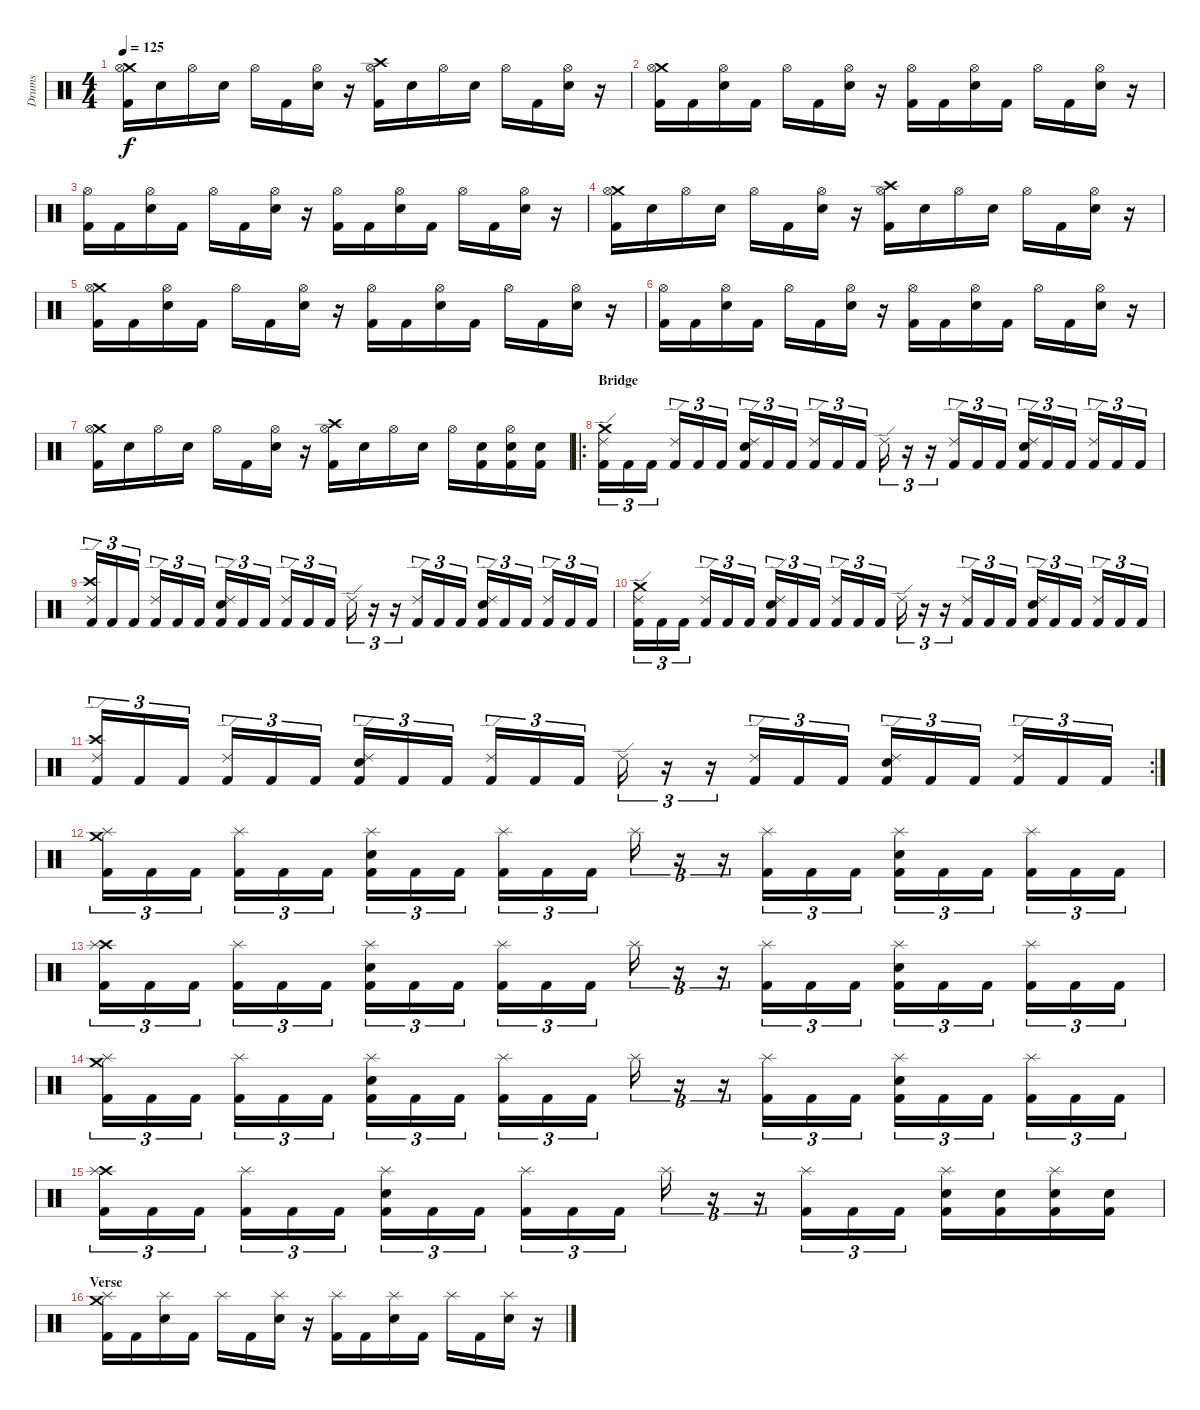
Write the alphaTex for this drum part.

\track ("Drums" "Drums") {instrument percussion}
\staff {score}
\articulation defaults
\ts (4 4)
\tempo 125
\clef neutral
\ks c
("Crash medium (hit)" "Hi-Hat (open)" "Kick (hit) 2").16{dy f} "Electric Snare (hit)".16 "Hi-Hat (open)".16 "Electric Snare (hit)".16 "Hi-Hat (open)".16 "Kick (hit) 2".16 ("Hi-Hat (open)" "Electric Snare (hit)").16 r.16 ("Crash high (hit)" "Hi-Hat (open)" "Kick (hit) 2").16 "Electric Snare (hit)".16 "Hi-Hat (open)".16 "Electric Snare (hit)".16 "Hi-Hat (open)".16 "Kick (hit) 2".16 ("Hi-Hat (open)" "Electric Snare (hit)").16 r.16 |
("Crash medium (hit)" "Hi-Hat (open)" "Kick (hit) 2").16 "Kick (hit) 2".16 ("Hi-Hat (open)" "Electric Snare (hit)").16 "Kick (hit) 2".16 "Hi-Hat (open)".16 "Kick (hit) 2".16 ("Hi-Hat (open)" "Electric Snare (hit)").16 r.16 ("Hi-Hat (open)" "Kick (hit) 2").16 "Kick (hit) 2".16 ("Hi-Hat (open)" "Electric Snare (hit)").16 "Kick (hit) 2".16 "Hi-Hat (open)".16 "Kick (hit) 2".16 ("Hi-Hat (open)" "Electric Snare (hit)").16 r.16 |
("Hi-Hat (open)" "Kick (hit) 2").16 "Kick (hit) 2".16 ("Hi-Hat (open)" "Electric Snare (hit)").16 "Kick (hit) 2".16 "Hi-Hat (open)".16 "Kick (hit) 2".16 ("Hi-Hat (open)" "Electric Snare (hit)").16 r.16 ("Hi-Hat (open)" "Kick (hit) 2").16 "Kick (hit) 2".16 ("Hi-Hat (open)" "Electric Snare (hit)").16 "Kick (hit) 2".16 "Hi-Hat (open)".16 "Kick (hit) 2".16 ("Hi-Hat (open)" "Electric Snare (hit)").16 r.16 |
("Crash medium (hit)" "Hi-Hat (open)" "Kick (hit) 2").16 "Electric Snare (hit)".16 "Hi-Hat (open)".16 "Electric Snare (hit)".16 "Hi-Hat (open)".16 "Kick (hit) 2".16 ("Hi-Hat (open)" "Electric Snare (hit)").16 r.16 ("Crash high (hit)" "Hi-Hat (open)" "Kick (hit) 2").16 "Electric Snare (hit)".16 "Hi-Hat (open)".16 "Electric Snare (hit)".16 "Hi-Hat (open)".16 "Kick (hit) 2".16 ("Hi-Hat (open)" "Electric Snare (hit)").16 r.16 |
("Crash medium (hit)" "Hi-Hat (open)" "Kick (hit) 2").16 "Kick (hit) 2".16 ("Hi-Hat (open)" "Electric Snare (hit)").16 "Kick (hit) 2".16 "Hi-Hat (open)".16 "Kick (hit) 2".16 ("Hi-Hat (open)" "Electric Snare (hit)").16 r.16 ("Hi-Hat (open)" "Kick (hit) 2").16 "Kick (hit) 2".16 ("Hi-Hat (open)" "Electric Snare (hit)").16 "Kick (hit) 2".16 "Hi-Hat (open)".16 "Kick (hit) 2".16 ("Hi-Hat (open)" "Electric Snare (hit)").16 r.16 |
("Hi-Hat (open)" "Kick (hit) 2").16 "Kick (hit) 2".16 ("Hi-Hat (open)" "Electric Snare (hit)").16 "Kick (hit) 2".16 "Hi-Hat (open)".16 "Kick (hit) 2".16 ("Hi-Hat (open)" "Electric Snare (hit)").16 r.16 ("Hi-Hat (open)" "Kick (hit) 2").16 "Kick (hit) 2".16 ("Hi-Hat (open)" "Electric Snare (hit)").16 "Kick (hit) 2".16 "Hi-Hat (open)".16 "Kick (hit) 2".16 ("Hi-Hat (open)" "Electric Snare (hit)").16 r.16 |
("Crash medium (hit)" "Hi-Hat (open)" "Kick (hit) 2").16 "Electric Snare (hit)".16 "Hi-Hat (open)".16 "Electric Snare (hit)".16 "Hi-Hat (open)".16 "Kick (hit) 2".16 ("Hi-Hat (open)" "Electric Snare (hit)").16 r.16 ("Crash high (hit)" "Hi-Hat (open)" "Kick (hit) 2").16 "Electric Snare (hit)".16 "Hi-Hat (open)".16 "Electric Snare (hit)".16 "Hi-Hat (open)".16 ("Electric Snare (hit)" "Kick (hit) 2").16 ("Hi-Hat (open)" "Electric Snare (hit)" "Kick (hit) 2").16 ("Electric Snare (hit)" "Kick (hit) 2").16 |
\ro
\section ("" "Bridge")
("Crash medium (hit)" "Ride (edge) 2" "Kick (hit) 2").16{tu (3 2)} "Kick (hit) 2".16{tu (3 2)} "Kick (hit) 2".16{tu (3 2)} ("Ride (edge) 2" "Kick (hit) 2").16{tu (3 2)} "Kick (hit) 2".16{tu (3 2)} "Kick (hit) 2".16{tu (3 2)} ("Ride (edge) 2" "Electric Snare (hit)" "Kick (hit) 2").16{tu (3 2)} "Kick (hit) 2".16{tu (3 2)} "Kick (hit) 2".16{tu (3 2)} ("Ride (edge) 2" "Kick (hit) 2").16{tu (3 2)} "Kick (hit) 2".16{tu (3 2)} "Kick (hit) 2".16{tu (3 2)} "Ride (edge) 2".16{tu (3 2)} r.16{tu (3 2)} r.16{tu (3 2)} ("Ride (edge) 2" "Kick (hit) 2").16{tu (3 2)} "Kick (hit) 2".16{tu (3 2)} "Kick (hit) 2".16{tu (3 2)} ("Ride (edge) 2" "Electric Snare (hit)" "Kick (hit) 2").16{tu (3 2)} "Kick (hit) 2".16{tu (3 2)} "Kick (hit) 2".16{tu (3 2)} ("Ride (edge) 2" "Kick (hit) 2").16{tu (3 2)} "Kick (hit) 2".16{tu (3 2)} "Kick (hit) 2".16{tu (3 2)} |
("Crash high (hit)" "Ride (edge) 2" "Kick (hit) 2").16{tu (3 2)} "Kick (hit) 2".16{tu (3 2)} "Kick (hit) 2".16{tu (3 2)} ("Ride (edge) 2" "Kick (hit) 2").16{tu (3 2)} "Kick (hit) 2".16{tu (3 2)} "Kick (hit) 2".16{tu (3 2)} ("Ride (edge) 2" "Electric Snare (hit)" "Kick (hit) 2").16{tu (3 2)} "Kick (hit) 2".16{tu (3 2)} "Kick (hit) 2".16{tu (3 2)} ("Ride (edge) 2" "Kick (hit) 2").16{tu (3 2)} "Kick (hit) 2".16{tu (3 2)} "Kick (hit) 2".16{tu (3 2)} "Ride (edge) 2".16{tu (3 2)} r.16{tu (3 2)} r.16{tu (3 2)} ("Ride (edge) 2" "Kick (hit) 2").16{tu (3 2)} "Kick (hit) 2".16{tu (3 2)} "Kick (hit) 2".16{tu (3 2)} ("Ride (edge) 2" "Electric Snare (hit)" "Kick (hit) 2").16{tu (3 2)} "Kick (hit) 2".16{tu (3 2)} "Kick (hit) 2".16{tu (3 2)} ("Ride (edge) 2" "Kick (hit) 2").16{tu (3 2)} "Kick (hit) 2".16{tu (3 2)} "Kick (hit) 2".16{tu (3 2)} |
("Crash medium (hit)" "Ride (edge) 2" "Kick (hit) 2").16{tu (3 2)} "Kick (hit) 2".16{tu (3 2)} "Kick (hit) 2".16{tu (3 2)} ("Ride (edge) 2" "Kick (hit) 2").16{tu (3 2)} "Kick (hit) 2".16{tu (3 2)} "Kick (hit) 2".16{tu (3 2)} ("Ride (edge) 2" "Electric Snare (hit)" "Kick (hit) 2").16{tu (3 2)} "Kick (hit) 2".16{tu (3 2)} "Kick (hit) 2".16{tu (3 2)} ("Ride (edge) 2" "Kick (hit) 2").16{tu (3 2)} "Kick (hit) 2".16{tu (3 2)} "Kick (hit) 2".16{tu (3 2)} "Ride (edge) 2".16{tu (3 2)} r.16{tu (3 2)} r.16{tu (3 2)} ("Ride (edge) 2" "Kick (hit) 2").16{tu (3 2)} "Kick (hit) 2".16{tu (3 2)} "Kick (hit) 2".16{tu (3 2)} ("Ride (edge) 2" "Electric Snare (hit)" "Kick (hit) 2").16{tu (3 2)} "Kick (hit) 2".16{tu (3 2)} "Kick (hit) 2".16{tu (3 2)} ("Ride (edge) 2" "Kick (hit) 2").16{tu (3 2)} "Kick (hit) 2".16{tu (3 2)} "Kick (hit) 2".16{tu (3 2)} |
\rc 2
("Crash high (hit)" "Ride (edge) 2" "Kick (hit) 2").16{tu (3 2)} "Kick (hit) 2".16{tu (3 2)} "Kick (hit) 2".16{tu (3 2)} ("Ride (edge) 2" "Kick (hit) 2").16{tu (3 2)} "Kick (hit) 2".16{tu (3 2)} "Kick (hit) 2".16{tu (3 2)} ("Ride (edge) 2" "Electric Snare (hit)" "Kick (hit) 2").16{tu (3 2)} "Kick (hit) 2".16{tu (3 2)} "Kick (hit) 2".16{tu (3 2)} ("Ride (edge) 2" "Kick (hit) 2").16{tu (3 2)} "Kick (hit) 2".16{tu (3 2)} "Kick (hit) 2".16{tu (3 2)} "Ride (edge) 2".16{tu (3 2)} r.16{tu (3 2)} r.16{tu (3 2)} ("Ride (edge) 2" "Kick (hit) 2").16{tu (3 2)} "Kick (hit) 2".16{tu (3 2)} "Kick (hit) 2".16{tu (3 2)} ("Ride (edge) 2" "Electric Snare (hit)" "Kick (hit) 2").16{tu (3 2)} "Kick (hit) 2".16{tu (3 2)} "Kick (hit) 2".16{tu (3 2)} ("Ride (edge) 2" "Kick (hit) 2").16{tu (3 2)} "Kick (hit) 2".16{tu (3 2)} "Kick (hit) 2".16{tu (3 2)} |
("Crash medium (hit)" "Splash (hit)" "Kick (hit) 2").16{tu (3 2)} "Kick (hit) 2".16{tu (3 2)} "Kick (hit) 2".16{tu (3 2)} ("Splash (hit)" "Kick (hit) 2").16{tu (3 2)} "Kick (hit) 2".16{tu (3 2)} "Kick (hit) 2".16{tu (3 2)} ("Splash (hit)" "Electric Snare (hit)" "Kick (hit) 2").16{tu (3 2)} "Kick (hit) 2".16{tu (3 2)} "Kick (hit) 2".16{tu (3 2)} ("Splash (hit)" "Kick (hit) 2").16{tu (3 2)} "Kick (hit) 2".16{tu (3 2)} "Kick (hit) 2".16{tu (3 2)} "Splash (hit)".16{tu (3 2)} r.16{tu (3 2)} r.16{tu (3 2)} ("Splash (hit)" "Kick (hit) 2").16{tu (3 2)} "Kick (hit) 2".16{tu (3 2)} "Kick (hit) 2".16{tu (3 2)} ("Splash (hit)" "Electric Snare (hit)" "Kick (hit) 2").16{tu (3 2)} "Kick (hit) 2".16{tu (3 2)} "Kick (hit) 2".16{tu (3 2)} ("Splash (hit)" "Kick (hit) 2").16{tu (3 2)} "Kick (hit) 2".16{tu (3 2)} "Kick (hit) 2".16{tu (3 2)} |
("Crash high (hit)" "Splash (hit)" "Kick (hit) 2").16{tu (3 2)} "Kick (hit) 2".16{tu (3 2)} "Kick (hit) 2".16{tu (3 2)} ("Splash (hit)" "Kick (hit) 2").16{tu (3 2)} "Kick (hit) 2".16{tu (3 2)} "Kick (hit) 2".16{tu (3 2)} ("Splash (hit)" "Electric Snare (hit)" "Kick (hit) 2").16{tu (3 2)} "Kick (hit) 2".16{tu (3 2)} "Kick (hit) 2".16{tu (3 2)} ("Splash (hit)" "Kick (hit) 2").16{tu (3 2)} "Kick (hit) 2".16{tu (3 2)} "Kick (hit) 2".16{tu (3 2)} "Splash (hit)".16{tu (3 2)} r.16{tu (3 2)} r.16{tu (3 2)} ("Splash (hit)" "Kick (hit) 2").16{tu (3 2)} "Kick (hit) 2".16{tu (3 2)} "Kick (hit) 2".16{tu (3 2)} ("Splash (hit)" "Electric Snare (hit)" "Kick (hit) 2").16{tu (3 2)} "Kick (hit) 2".16{tu (3 2)} "Kick (hit) 2".16{tu (3 2)} ("Splash (hit)" "Kick (hit) 2").16{tu (3 2)} "Kick (hit) 2".16{tu (3 2)} "Kick (hit) 2".16{tu (3 2)} |
("Crash medium (hit)" "Splash (hit)" "Kick (hit) 2").16{tu (3 2)} "Kick (hit) 2".16{tu (3 2)} "Kick (hit) 2".16{tu (3 2)} ("Splash (hit)" "Kick (hit) 2").16{tu (3 2)} "Kick (hit) 2".16{tu (3 2)} "Kick (hit) 2".16{tu (3 2)} ("Splash (hit)" "Electric Snare (hit)" "Kick (hit) 2").16{tu (3 2)} "Kick (hit) 2".16{tu (3 2)} "Kick (hit) 2".16{tu (3 2)} ("Splash (hit)" "Kick (hit) 2").16{tu (3 2)} "Kick (hit) 2".16{tu (3 2)} "Kick (hit) 2".16{tu (3 2)} "Splash (hit)".16{tu (3 2)} r.16{tu (3 2)} r.16{tu (3 2)} ("Splash (hit)" "Kick (hit) 2").16{tu (3 2)} "Kick (hit) 2".16{tu (3 2)} "Kick (hit) 2".16{tu (3 2)} ("Splash (hit)" "Electric Snare (hit)" "Kick (hit) 2").16{tu (3 2)} "Kick (hit) 2".16{tu (3 2)} "Kick (hit) 2".16{tu (3 2)} ("Splash (hit)" "Kick (hit) 2").16{tu (3 2)} "Kick (hit) 2".16{tu (3 2)} "Kick (hit) 2".16{tu (3 2)} |
("Crash high (hit)" "Splash (hit)" "Kick (hit) 2").16{tu (3 2)} "Kick (hit) 2".16{tu (3 2)} "Kick (hit) 2".16{tu (3 2)} ("Splash (hit)" "Kick (hit) 2").16{tu (3 2)} "Kick (hit) 2".16{tu (3 2)} "Kick (hit) 2".16{tu (3 2)} ("Splash (hit)" "Electric Snare (hit)" "Kick (hit) 2").16{tu (3 2)} "Kick (hit) 2".16{tu (3 2)} "Kick (hit) 2".16{tu (3 2)} ("Splash (hit)" "Kick (hit) 2").16{tu (3 2)} "Kick (hit) 2".16{tu (3 2)} "Kick (hit) 2".16{tu (3 2)} "Splash (hit)".16{tu (3 2)} r.16{tu (3 2)} r.16{tu (3 2)} ("Splash (hit)" "Kick (hit) 2").16{tu (3 2)} "Kick (hit) 2".16{tu (3 2)} "Kick (hit) 2".16{tu (3 2)} ("Splash (hit)" "Electric Snare (hit)" "Kick (hit) 2").16 ("Electric Snare (hit)" "Kick (hit) 2").16 ("Splash (hit)" "Electric Snare (hit)" "Kick (hit) 2").16 ("Electric Snare (hit)" "Kick (hit) 2").16 |
\section ("" "Verse")
("Crash medium (hit)" "Splash (hit)" "Kick (hit) 2").16 "Kick (hit) 2".16 ("Splash (hit)" "Electric Snare (hit)").16 "Kick (hit) 2".16 "Splash (hit)".16 "Kick (hit) 2".16 ("Splash (hit)" "Electric Snare (hit)").16 r.16 ("Splash (hit)" "Kick (hit) 2").16 "Kick (hit) 2".16 ("Splash (hit)" "Electric Snare (hit)").16 "Kick (hit) 2".16 "Splash (hit)".16 "Kick (hit) 2".16 ("Splash (hit)" "Electric Snare (hit)").16 r.16
